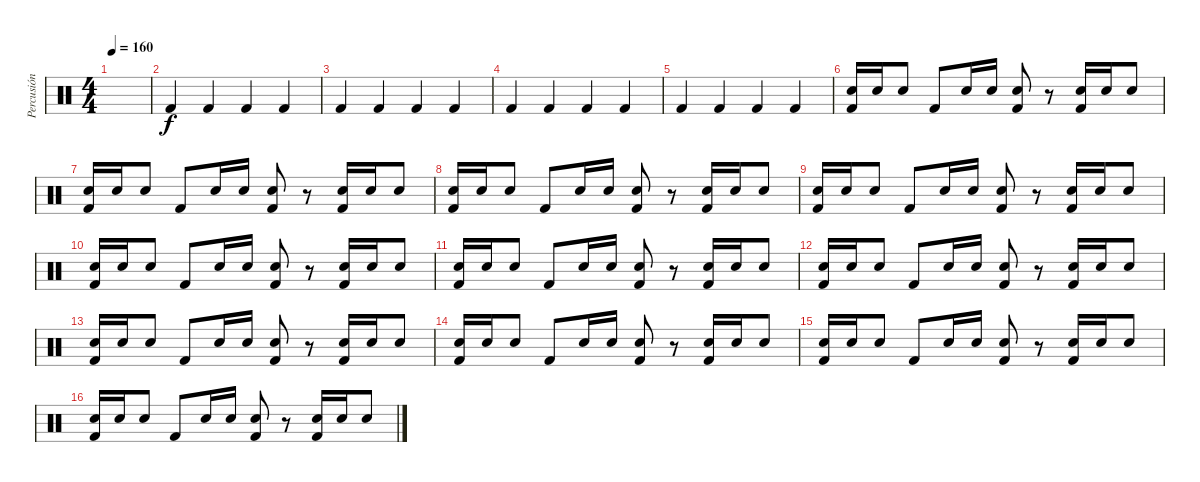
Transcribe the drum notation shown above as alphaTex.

\track ("Percusión" "Percusión") {instrument percussion}
\staff {score}
\articulation defaults
\ts (4 4)
\tempo 160
\clef neutral
\ks c
|
"Kick (hit) 2".4 "Kick (hit) 2".4 "Kick (hit) 2".4 "Kick (hit) 2".4 |
"Kick (hit) 2".4 "Kick (hit) 2".4 "Kick (hit) 2".4 "Kick (hit) 2".4 |
"Kick (hit) 2".4 "Kick (hit) 2".4 "Kick (hit) 2".4 "Kick (hit) 2".4 |
"Kick (hit) 2".4 "Kick (hit) 2".4 "Kick (hit) 2".4 "Kick (hit) 2".4 |
("Electric Snare (hit)" "Kick (hit) 2").16 "Electric Snare (hit)".16 "Electric Snare (hit)".8 "Kick (hit) 2".8 "Electric Snare (hit)".16 "Electric Snare (hit)".16 ("Electric Snare (hit)" "Kick (hit) 2").8 r.8 ("Electric Snare (hit)" "Kick (hit) 2").16 "Electric Snare (hit)".16 "Electric Snare (hit)".8 |
("Electric Snare (hit)" "Kick (hit) 2").16 "Electric Snare (hit)".16 "Electric Snare (hit)".8 "Kick (hit) 2".8 "Electric Snare (hit)".16 "Electric Snare (hit)".16 ("Electric Snare (hit)" "Kick (hit) 2").8 r.8 ("Electric Snare (hit)" "Kick (hit) 2").16 "Electric Snare (hit)".16 "Electric Snare (hit)".8 |
("Electric Snare (hit)" "Kick (hit) 2").16 "Electric Snare (hit)".16 "Electric Snare (hit)".8 "Kick (hit) 2".8 "Electric Snare (hit)".16 "Electric Snare (hit)".16 ("Electric Snare (hit)" "Kick (hit) 2").8 r.8 ("Electric Snare (hit)" "Kick (hit) 2").16 "Electric Snare (hit)".16 "Electric Snare (hit)".8 |
("Electric Snare (hit)" "Kick (hit) 2").16 "Electric Snare (hit)".16 "Electric Snare (hit)".8 "Kick (hit) 2".8 "Electric Snare (hit)".16 "Electric Snare (hit)".16 ("Electric Snare (hit)" "Kick (hit) 2").8 r.8 ("Electric Snare (hit)" "Kick (hit) 2").16 "Electric Snare (hit)".16 "Electric Snare (hit)".8 |
("Electric Snare (hit)" "Kick (hit) 2").16 "Electric Snare (hit)".16 "Electric Snare (hit)".8 "Kick (hit) 2".8 "Electric Snare (hit)".16 "Electric Snare (hit)".16 ("Electric Snare (hit)" "Kick (hit) 2").8 r.8 ("Electric Snare (hit)" "Kick (hit) 2").16 "Electric Snare (hit)".16 "Electric Snare (hit)".8 |
("Electric Snare (hit)" "Kick (hit) 2").16 "Electric Snare (hit)".16 "Electric Snare (hit)".8 "Kick (hit) 2".8 "Electric Snare (hit)".16 "Electric Snare (hit)".16 ("Electric Snare (hit)" "Kick (hit) 2").8 r.8 ("Electric Snare (hit)" "Kick (hit) 2").16 "Electric Snare (hit)".16 "Electric Snare (hit)".8 |
("Electric Snare (hit)" "Kick (hit) 2").16 "Electric Snare (hit)".16 "Electric Snare (hit)".8 "Kick (hit) 2".8 "Electric Snare (hit)".16 "Electric Snare (hit)".16 ("Electric Snare (hit)" "Kick (hit) 2").8 r.8 ("Electric Snare (hit)" "Kick (hit) 2").16 "Electric Snare (hit)".16 "Electric Snare (hit)".8 |
("Electric Snare (hit)" "Kick (hit) 2").16 "Electric Snare (hit)".16 "Electric Snare (hit)".8 "Kick (hit) 2".8 "Electric Snare (hit)".16 "Electric Snare (hit)".16 ("Electric Snare (hit)" "Kick (hit) 2").8 r.8 ("Electric Snare (hit)" "Kick (hit) 2").16 "Electric Snare (hit)".16 "Electric Snare (hit)".8 |
("Electric Snare (hit)" "Kick (hit) 2").16 "Electric Snare (hit)".16 "Electric Snare (hit)".8 "Kick (hit) 2".8 "Electric Snare (hit)".16 "Electric Snare (hit)".16 ("Electric Snare (hit)" "Kick (hit) 2").8 r.8 ("Electric Snare (hit)" "Kick (hit) 2").16 "Electric Snare (hit)".16 "Electric Snare (hit)".8 |
("Electric Snare (hit)" "Kick (hit) 2").16 "Electric Snare (hit)".16 "Electric Snare (hit)".8 "Kick (hit) 2".8 "Electric Snare (hit)".16 "Electric Snare (hit)".16 ("Electric Snare (hit)" "Kick (hit) 2").8 r.8 ("Electric Snare (hit)" "Kick (hit) 2").16 "Electric Snare (hit)".16 "Electric Snare (hit)".8 |
("Electric Snare (hit)" "Kick (hit) 2").16 "Electric Snare (hit)".16 "Electric Snare (hit)".8 "Kick (hit) 2".8 "Electric Snare (hit)".16 "Electric Snare (hit)".16 ("Electric Snare (hit)" "Kick (hit) 2").8 r.8 ("Electric Snare (hit)" "Kick (hit) 2").16 "Electric Snare (hit)".16 "Electric Snare (hit)".8
